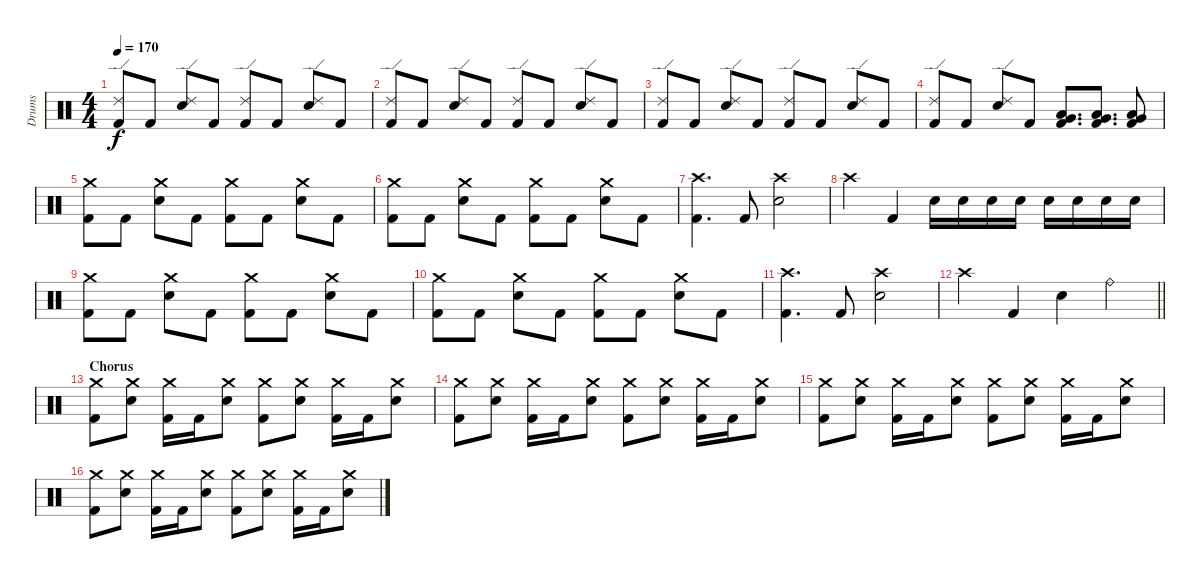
\track ("Drums" "Drums") {instrument percussion}
\staff {score}
\articulation defaults
\ts (4 4)
\tempo 170
\clef neutral
\ks c
("Ride (edge) 2" "Kick (hit) 2").8{dy f} "Kick (hit) 2".8 ("Ride (edge) 2" "Electric Snare (hit)").8 "Kick (hit) 2".8 ("Ride (edge) 2" "Kick (hit) 2").8 "Kick (hit) 2".8 ("Ride (edge) 2" "Electric Snare (hit)").8 "Kick (hit) 2".8 |
("Ride (edge) 2" "Kick (hit) 2").8 "Kick (hit) 2".8 ("Ride (edge) 2" "Electric Snare (hit)").8 "Kick (hit) 2".8 ("Ride (edge) 2" "Kick (hit) 2").8 "Kick (hit) 2".8 ("Ride (edge) 2" "Electric Snare (hit)").8 "Kick (hit) 2".8 |
("Ride (edge) 2" "Kick (hit) 2").8 "Kick (hit) 2".8 ("Ride (edge) 2" "Electric Snare (hit)").8 "Kick (hit) 2".8 ("Ride (edge) 2" "Kick (hit) 2").8 "Kick (hit) 2".8 ("Ride (edge) 2" "Electric Snare (hit)").8 "Kick (hit) 2".8 |
("Ride (edge) 2" "Kick (hit) 2").8 "Kick (hit) 2".8 ("Ride (edge) 2" "Electric Snare (hit)").8 "Kick (hit) 2".8 ("Low Floor Tom (hit)" "Very Low Tom (hit)" "Kick (hit) 2").8{d} ("Low Floor Tom (hit)" "Very Low Tom (hit)" "Kick (hit) 2").8{d} ("Low Floor Tom (hit)" "Very Low Tom (hit)" "Kick (hit) 2").8 |
("Crash medium (hit)" "Kick (hit) 2").8 "Kick (hit) 2".8 ("Crash medium (hit)" "Electric Snare (hit)").8 "Kick (hit) 2".8 ("Crash medium (hit)" "Kick (hit) 2").8 "Kick (hit) 2".8 ("Crash medium (hit)" "Electric Snare (hit)").8 "Kick (hit) 2".8 |
("Crash medium (hit)" "Kick (hit) 2").8 "Kick (hit) 2".8 ("Crash medium (hit)" "Electric Snare (hit)").8 "Kick (hit) 2".8 ("Crash medium (hit)" "Kick (hit) 2").8 "Kick (hit) 2".8 ("Crash medium (hit)" "Electric Snare (hit)").8 "Kick (hit) 2".8 |
("Crash high (hit)" "Kick (hit) 2").4{d} "Kick (hit) 2".8 ("Crash high (hit)" "Electric Snare (hit)").2 |
"Crash high (hit)".4 "Kick (hit) 2".4 "Electric Snare (hit)".16 "Electric Snare (hit)".16 "Electric Snare (hit)".16 "Electric Snare (hit)".16 "Electric Snare (hit)".16 "Electric Snare (hit)".16 "Electric Snare (hit)".16 "Electric Snare (hit)".16 |
("Crash medium (hit)" "Kick (hit) 2").8 "Kick (hit) 2".8 ("Crash medium (hit)" "Electric Snare (hit)").8 "Kick (hit) 2".8 ("Crash medium (hit)" "Kick (hit) 2").8 "Kick (hit) 2".8 ("Crash medium (hit)" "Electric Snare (hit)").8 "Kick (hit) 2".8 |
("Crash medium (hit)" "Kick (hit) 2").8 "Kick (hit) 2".8 ("Crash medium (hit)" "Electric Snare (hit)").8 "Kick (hit) 2".8 ("Crash medium (hit)" "Kick (hit) 2").8 "Kick (hit) 2".8 ("Crash medium (hit)" "Electric Snare (hit)").8 "Kick (hit) 2".8 |
("Crash high (hit)" "Kick (hit) 2").4{d} "Kick (hit) 2".8 ("Crash high (hit)" "Electric Snare (hit)").2 |
\barLineRight lightlight "Crash high (hit)".4 "Kick (hit) 2".4 "Electric Snare (hit)".4 "Ride (bell)".4
|
\section ("" "Chorus")
("Crash medium (hit)" "Kick (hit) 2").8 ("Crash medium (hit)" "Electric Snare (hit)").8 ("Crash medium (hit)" "Kick (hit) 2").16 "Kick (hit) 2".16 ("Crash medium (hit)" "Electric Snare (hit)").8 ("Crash medium (hit)" "Kick (hit) 2").8 ("Crash medium (hit)" "Electric Snare (hit)").8 ("Crash medium (hit)" "Kick (hit) 2").16 "Kick (hit) 2".16 ("Crash medium (hit)" "Electric Snare (hit)").8 |
("Crash medium (hit)" "Kick (hit) 2").8 ("Crash medium (hit)" "Electric Snare (hit)").8 ("Crash medium (hit)" "Kick (hit) 2").16 "Kick (hit) 2".16 ("Crash medium (hit)" "Electric Snare (hit)").8 ("Crash medium (hit)" "Kick (hit) 2").8 ("Crash medium (hit)" "Electric Snare (hit)").8 ("Crash medium (hit)" "Kick (hit) 2").16 "Kick (hit) 2".16 ("Crash medium (hit)" "Electric Snare (hit)").8 |
("Crash medium (hit)" "Kick (hit) 2").8 ("Crash medium (hit)" "Electric Snare (hit)").8 ("Crash medium (hit)" "Kick (hit) 2").16 "Kick (hit) 2".16 ("Crash medium (hit)" "Electric Snare (hit)").8 ("Crash medium (hit)" "Kick (hit) 2").8 ("Crash medium (hit)" "Electric Snare (hit)").8 ("Crash medium (hit)" "Kick (hit) 2").16 "Kick (hit) 2".16 ("Crash medium (hit)" "Electric Snare (hit)").8 |
("Crash medium (hit)" "Kick (hit) 2").8 ("Crash medium (hit)" "Electric Snare (hit)").8 ("Crash medium (hit)" "Kick (hit) 2").16 "Kick (hit) 2".16 ("Crash medium (hit)" "Electric Snare (hit)").8 ("Crash medium (hit)" "Kick (hit) 2").8 ("Crash medium (hit)" "Electric Snare (hit)").8 ("Crash medium (hit)" "Kick (hit) 2").16 "Kick (hit) 2".16 ("Crash medium (hit)" "Electric Snare (hit)").8
